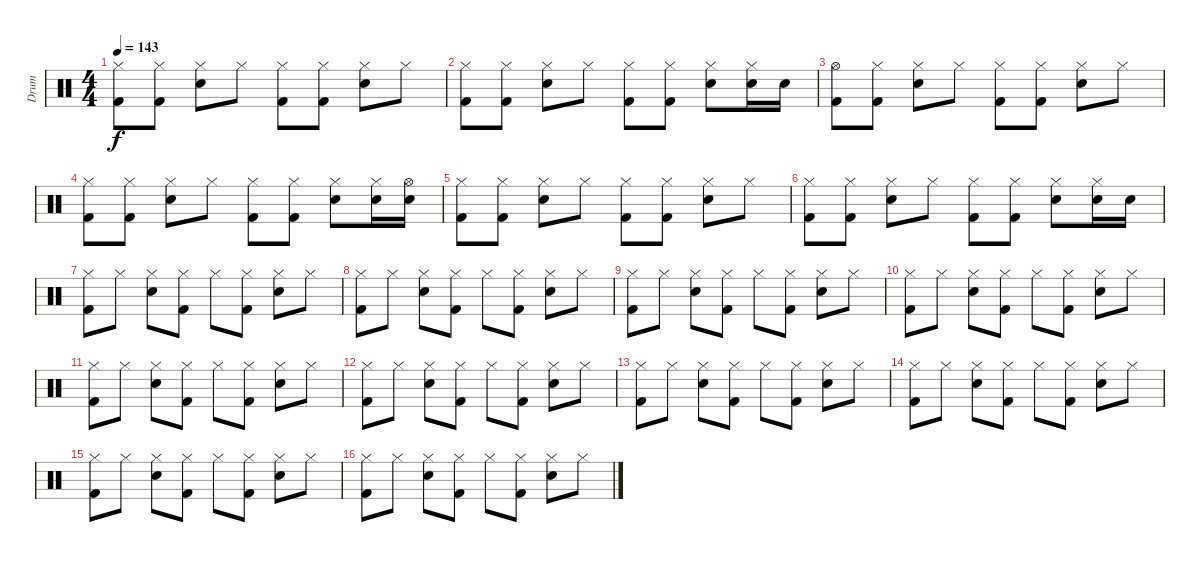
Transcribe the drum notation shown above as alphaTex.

\track ("Drum" "Drum") {instrument percussion}
\staff {score}
\articulation defaults
\ts (4 4)
\tempo 143
\clef neutral
\ks c
("Hi-Hat (closed)" "Kick (hit) 2").8{dy f} ("Hi-Hat (closed)" "Kick (hit) 2").8 ("Hi-Hat (closed)" "Electric Snare (hit)").8 "Hi-Hat (closed)".8 ("Hi-Hat (closed)" "Kick (hit) 2").8 ("Hi-Hat (closed)" "Kick (hit) 2").8 ("Hi-Hat (closed)" "Electric Snare (hit)").8 "Hi-Hat (closed)".8 |
("Hi-Hat (closed)" "Kick (hit) 2").8 ("Hi-Hat (closed)" "Kick (hit) 2").8 ("Hi-Hat (closed)" "Electric Snare (hit)").8 "Hi-Hat (closed)".8 ("Hi-Hat (closed)" "Kick (hit) 2").8 ("Hi-Hat (closed)" "Kick (hit) 2").8 ("Hi-Hat (closed)" "Electric Snare (hit)").8 ("Hi-Hat (closed)" "Electric Snare (hit)").16 "Electric Snare (hit)".16 |
("Hi-Hat (open)" "Kick (hit) 2").8 ("Hi-Hat (closed)" "Kick (hit) 2").8 ("Hi-Hat (closed)" "Electric Snare (hit)").8 "Hi-Hat (closed)".8 ("Hi-Hat (closed)" "Kick (hit) 2").8 ("Hi-Hat (closed)" "Kick (hit) 2").8 ("Hi-Hat (closed)" "Electric Snare (hit)").8 "Hi-Hat (closed)".8 |
("Hi-Hat (closed)" "Kick (hit) 2").8 ("Hi-Hat (closed)" "Kick (hit) 2").8 ("Hi-Hat (closed)" "Electric Snare (hit)").8 "Hi-Hat (closed)".8 ("Hi-Hat (closed)" "Kick (hit) 2").8 ("Hi-Hat (closed)" "Kick (hit) 2").8 ("Hi-Hat (closed)" "Electric Snare (hit)").8 ("Hi-Hat (closed)" "Electric Snare (hit)").16 ("Hi-Hat (open)" "Electric Snare (hit)").16 |
("Hi-Hat (closed)" "Kick (hit) 2").8 ("Hi-Hat (closed)" "Kick (hit) 2").8 ("Hi-Hat (closed)" "Electric Snare (hit)").8 "Hi-Hat (closed)".8 ("Hi-Hat (closed)" "Kick (hit) 2").8 ("Hi-Hat (closed)" "Kick (hit) 2").8 ("Hi-Hat (closed)" "Electric Snare (hit)").8 "Hi-Hat (closed)".8 |
("Hi-Hat (closed)" "Kick (hit) 2").8 ("Hi-Hat (closed)" "Kick (hit) 2").8 ("Hi-Hat (closed)" "Electric Snare (hit)").8 "Hi-Hat (closed)".8 ("Hi-Hat (closed)" "Kick (hit) 2").8 ("Hi-Hat (closed)" "Kick (hit) 2").8 ("Hi-Hat (closed)" "Electric Snare (hit)").8 ("Hi-Hat (closed)" "Electric Snare (hit)").16 "Electric Snare (hit)".16 |
("Hi-Hat (closed)" "Kick (hit) 2").8 "Hi-Hat (closed)".8 ("Hi-Hat (closed)" "Electric Snare (hit)").8 ("Hi-Hat (closed)" "Kick (hit) 2").8 "Hi-Hat (closed)".8 ("Hi-Hat (closed)" "Kick (hit) 2").8 ("Hi-Hat (closed)" "Electric Snare (hit)").8 "Hi-Hat (closed)".8 |
("Hi-Hat (closed)" "Kick (hit) 2").8 "Hi-Hat (closed)".8 ("Hi-Hat (closed)" "Electric Snare (hit)").8 ("Hi-Hat (closed)" "Kick (hit) 2").8 "Hi-Hat (closed)".8 ("Hi-Hat (closed)" "Kick (hit) 2").8 ("Hi-Hat (closed)" "Electric Snare (hit)").8 "Hi-Hat (closed)".8 |
("Hi-Hat (closed)" "Kick (hit) 2").8 "Hi-Hat (closed)".8 ("Hi-Hat (closed)" "Electric Snare (hit)").8 ("Hi-Hat (closed)" "Kick (hit) 2").8 "Hi-Hat (closed)".8 ("Hi-Hat (closed)" "Kick (hit) 2").8 ("Hi-Hat (closed)" "Electric Snare (hit)").8 "Hi-Hat (closed)".8 |
("Hi-Hat (closed)" "Kick (hit) 2").8 "Hi-Hat (closed)".8 ("Hi-Hat (closed)" "Electric Snare (hit)").8 ("Hi-Hat (closed)" "Kick (hit) 2").8 "Hi-Hat (closed)".8 ("Hi-Hat (closed)" "Kick (hit) 2").8 ("Hi-Hat (closed)" "Electric Snare (hit)").8 "Hi-Hat (closed)".8 |
("Hi-Hat (closed)" "Kick (hit) 2").8 "Hi-Hat (closed)".8 ("Hi-Hat (closed)" "Electric Snare (hit)").8 ("Hi-Hat (closed)" "Kick (hit) 2").8 "Hi-Hat (closed)".8 ("Hi-Hat (closed)" "Kick (hit) 2").8 ("Hi-Hat (closed)" "Electric Snare (hit)").8 "Hi-Hat (closed)".8 |
("Hi-Hat (closed)" "Kick (hit) 2").8 "Hi-Hat (closed)".8 ("Hi-Hat (closed)" "Electric Snare (hit)").8 ("Hi-Hat (closed)" "Kick (hit) 2").8 "Hi-Hat (closed)".8 ("Hi-Hat (closed)" "Kick (hit) 2").8 ("Hi-Hat (closed)" "Electric Snare (hit)").8 "Hi-Hat (closed)".8 |
("Hi-Hat (closed)" "Kick (hit) 2").8 "Hi-Hat (closed)".8 ("Hi-Hat (closed)" "Electric Snare (hit)").8 ("Hi-Hat (closed)" "Kick (hit) 2").8 "Hi-Hat (closed)".8 ("Hi-Hat (closed)" "Kick (hit) 2").8 ("Hi-Hat (closed)" "Electric Snare (hit)").8 "Hi-Hat (closed)".8 |
("Hi-Hat (closed)" "Kick (hit) 2").8 "Hi-Hat (closed)".8 ("Hi-Hat (closed)" "Electric Snare (hit)").8 ("Hi-Hat (closed)" "Kick (hit) 2").8 "Hi-Hat (closed)".8 ("Hi-Hat (closed)" "Kick (hit) 2").8 ("Hi-Hat (closed)" "Electric Snare (hit)").8 "Hi-Hat (closed)".8 |
("Hi-Hat (closed)" "Kick (hit) 2").8 "Hi-Hat (closed)".8 ("Hi-Hat (closed)" "Electric Snare (hit)").8 ("Hi-Hat (closed)" "Kick (hit) 2").8 "Hi-Hat (closed)".8 ("Hi-Hat (closed)" "Kick (hit) 2").8 ("Hi-Hat (closed)" "Electric Snare (hit)").8 "Hi-Hat (closed)".8 |
("Hi-Hat (closed)" "Kick (hit) 2").8 "Hi-Hat (closed)".8 ("Hi-Hat (closed)" "Electric Snare (hit)").8 ("Hi-Hat (closed)" "Kick (hit) 2").8 "Hi-Hat (closed)".8 ("Hi-Hat (closed)" "Kick (hit) 2").8 ("Hi-Hat (closed)" "Electric Snare (hit)").8 "Hi-Hat (closed)".8
